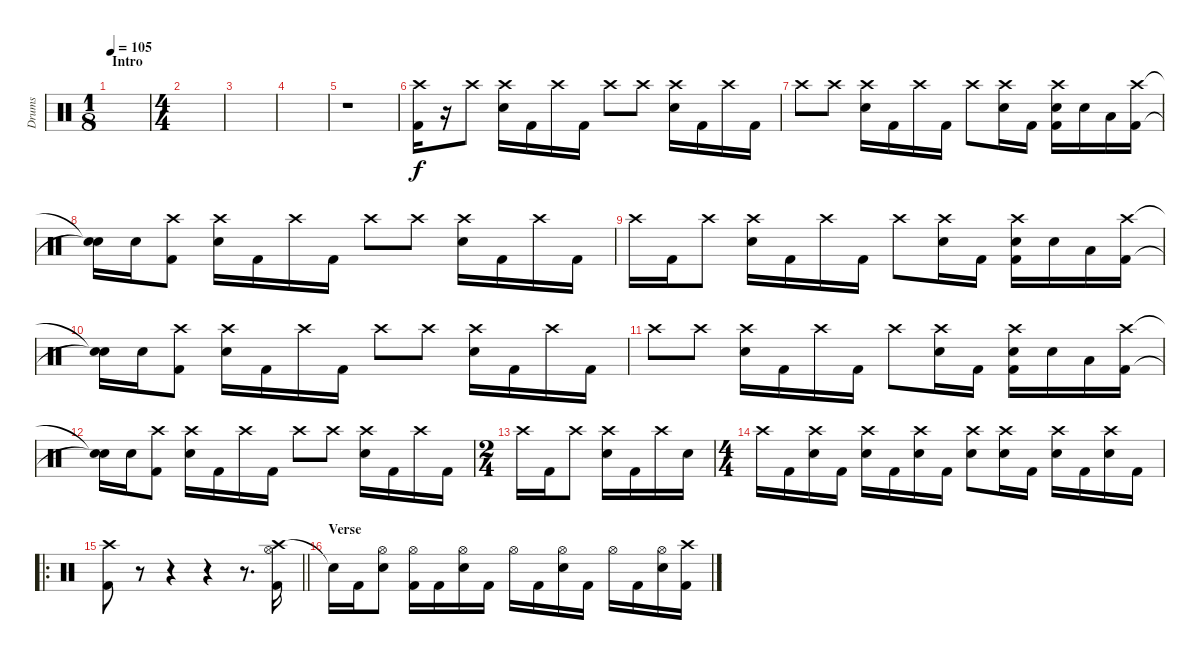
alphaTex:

\track ("Drums" "Drums") {instrument percussion}
\staff {score}
\articulation defaults
\ts (1 8)
\section ("" "Intro")
\tempo 105
\clef neutral
\ks c
|
\ts (4 4)
|
|
|
r.1 |
("Crash high (hit)" "Kick (hit) 2").16 r.16 "Crash high (hit)".8 ("Crash high (hit)" "Electric Snare (hit)").16 "Kick (hit) 2".16 "Crash high (hit)".16 "Kick (hit) 2".16 "Crash high (hit)".8 "Crash high (hit)".8 ("Crash high (hit)" "Electric Snare (hit)").16 "Kick (hit) 2".16 "Crash high (hit)".16 "Kick (hit) 2".16 |
"Crash high (hit)".8 "Crash high (hit)".8 ("Crash high (hit)" "Electric Snare (hit)").16 "Kick (hit) 2".16 "Crash high (hit)".16 "Kick (hit) 2".16 "Crash high (hit)".8 ("Crash high (hit)" "Electric Snare (hit)").16 "Kick (hit) 2".16 ("Crash high (hit)" "Electric Snare (hit)" "Kick (hit) 2").16 "Electric Snare (hit)".16 "Low Tom (hit)".16 ("Crash high (hit)" "Kick (hit) 2").16 |
("Snare (hit)"{t} "Snare (hit)"{t}).16 "Electric Snare (hit)".16 ("Crash high (hit)" "Kick (hit) 2").8 ("Crash high (hit)" "Electric Snare (hit)").16 "Kick (hit) 2".16 "Crash high (hit)".16 "Kick (hit) 2".16 "Crash high (hit)".8 "Crash high (hit)".8 ("Crash high (hit)" "Electric Snare (hit)").16 "Kick (hit) 2".16 "Crash high (hit)".16 "Kick (hit) 2".16 |
"Crash high (hit)".16 "Kick (hit) 2".16 "Crash high (hit)".8 ("Crash high (hit)" "Electric Snare (hit)").16 "Kick (hit) 2".16 "Crash high (hit)".16 "Kick (hit) 2".16 "Crash high (hit)".8 ("Crash high (hit)" "Electric Snare (hit)").16 "Kick (hit) 2".16 ("Crash high (hit)" "Electric Snare (hit)" "Kick (hit) 2").16 "Electric Snare (hit)".16 "Low Tom (hit)".16 ("Crash high (hit)" "Kick (hit) 2").16 |
("Snare (hit)"{t} "Snare (hit)"{t}).16 "Electric Snare (hit)".16 ("Crash high (hit)" "Kick (hit) 2").8 ("Crash high (hit)" "Electric Snare (hit)").16 "Kick (hit) 2".16 "Crash high (hit)".16 "Kick (hit) 2".16 "Crash high (hit)".8 "Crash high (hit)".8 ("Crash high (hit)" "Electric Snare (hit)").16 "Kick (hit) 2".16 "Crash high (hit)".16 "Kick (hit) 2".16 |
"Crash high (hit)".8 "Crash high (hit)".8 ("Crash high (hit)" "Electric Snare (hit)").16 "Kick (hit) 2".16 "Crash high (hit)".16 "Kick (hit) 2".16 "Crash high (hit)".8 ("Crash high (hit)" "Electric Snare (hit)").16 "Kick (hit) 2".16 ("Crash high (hit)" "Electric Snare (hit)" "Kick (hit) 2").16 "Electric Snare (hit)".16 "Low Tom (hit)".16 ("Crash high (hit)" "Kick (hit) 2").16 |
("Snare (hit)"{t} "Snare (hit)"{t}).16 "Electric Snare (hit)".16 ("Crash high (hit)" "Kick (hit) 2").8 ("Crash high (hit)" "Electric Snare (hit)").16 "Kick (hit) 2".16 "Crash high (hit)".16 "Kick (hit) 2".16 "Crash high (hit)".8 "Crash high (hit)".8 ("Crash high (hit)" "Electric Snare (hit)").16 "Kick (hit) 2".16 "Crash high (hit)".16 "Kick (hit) 2".16 |
\ts (2 4)
"Crash high (hit)".16 "Kick (hit) 2".16 "Crash high (hit)".8 ("Crash high (hit)" "Electric Snare (hit)").16 "Kick (hit) 2".16 "Crash high (hit)".16 "Electric Snare (hit)".16 |
\ts (4 4)
"Crash high (hit)".16 "Kick (hit) 2".16 ("Crash high (hit)" "Electric Snare (hit)").16 "Kick (hit) 2".16 ("Crash high (hit)" "Electric Snare (hit)").16 "Kick (hit) 2".16 ("Crash high (hit)" "Electric Snare (hit)").16 "Kick (hit) 2".16 ("Crash high (hit)" "Electric Snare (hit)").8 ("Crash high (hit)" "Electric Snare (hit)").16 "Kick (hit) 2".16 ("Crash high (hit)" "Electric Snare (hit)").16 "Kick (hit) 2".16 ("Crash high (hit)" "Electric Snare (hit)").16 "Kick (hit) 2".16 |
\ro
\barLineRight lightlight
("Crash high (hit)" "Kick (hit) 2").8 r.8{volume 0} r.4{volume 13} r.4 r.8{d} ("Crash high (hit)" "Hi-Hat (open)" "Kick (hit) 2").16 |
\section ("" "Verse")
"Snare (hit)"{t}.16 "Kick (hit) 2".16 ("Hi-Hat (open)" "Electric Snare (hit)").8 ("Hi-Hat (open)" "Kick (hit) 2").16 "Kick (hit) 2".16 ("Hi-Hat (open)" "Electric Snare (hit)").16 "Kick (hit) 2".16 "Hi-Hat (open)".16 "Kick (hit) 2".16 ("Hi-Hat (open)" "Electric Snare (hit)").16 "Kick (hit) 2".16 "Hi-Hat (open)".16 "Kick (hit) 2".16 ("Hi-Hat (open)" "Electric Snare (hit)").16 ("Crash high (hit)" "Kick (hit) 2").16
